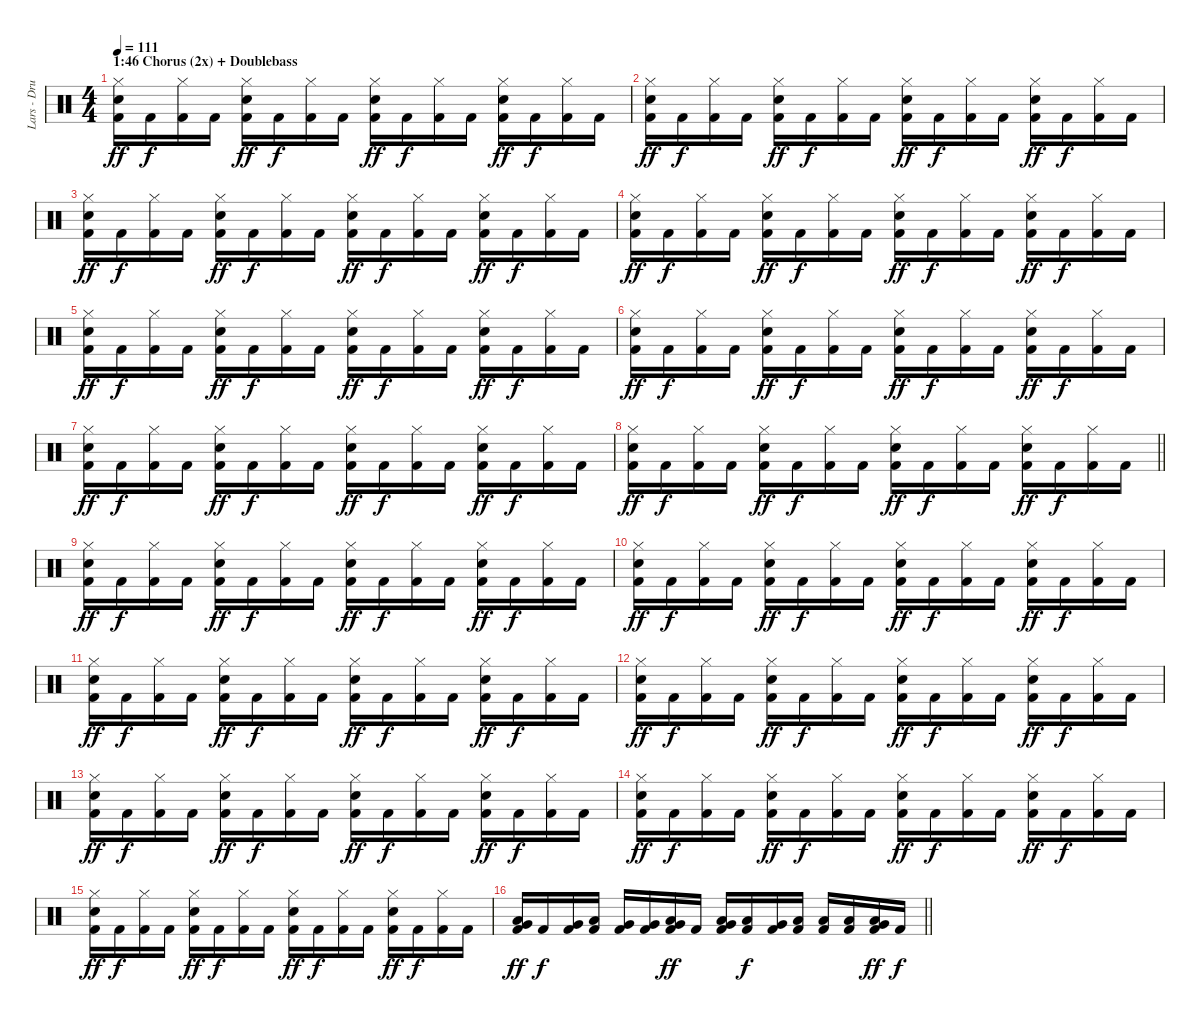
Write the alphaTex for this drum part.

\track ("Lars - Drums + tempi marker" "Lars - Dru") {instrument percussion}
\staff {score}
\articulation defaults
\ts (4 4)
\section ("" "1:46 Chorus (2x) + Doublebass")
\tempo 111
\clef neutral
\ks c
("Electric Snare (hit)" "Hi-Hat (closed)" "Kick (hit) 2").16{dy ff} "Kick (hit) 2".16{dy f} ("Hi-Hat (closed)" "Kick (hit) 2").16 "Kick (hit) 2".16 ("Electric Snare (hit)" "Hi-Hat (closed)" "Kick (hit) 2").16{dy ff} "Kick (hit) 2".16{dy f} ("Hi-Hat (closed)" "Kick (hit) 2").16 "Kick (hit) 2".16 ("Electric Snare (hit)" "Hi-Hat (closed)" "Kick (hit) 2").16{dy ff} "Kick (hit) 2".16{dy f} ("Hi-Hat (closed)" "Kick (hit) 2").16 "Kick (hit) 2".16 ("Electric Snare (hit)" "Hi-Hat (closed)" "Kick (hit) 2").16{dy ff} "Kick (hit) 2".16{dy f} ("Hi-Hat (closed)" "Kick (hit) 2").16 "Kick (hit) 2".16 |
("Electric Snare (hit)" "Hi-Hat (closed)" "Kick (hit) 2").16{dy ff} "Kick (hit) 2".16{dy f} ("Hi-Hat (closed)" "Kick (hit) 2").16 "Kick (hit) 2".16 ("Electric Snare (hit)" "Hi-Hat (closed)" "Kick (hit) 2").16{dy ff} "Kick (hit) 2".16{dy f} ("Hi-Hat (closed)" "Kick (hit) 2").16 "Kick (hit) 2".16 ("Electric Snare (hit)" "Hi-Hat (closed)" "Kick (hit) 2").16{dy ff} "Kick (hit) 2".16{dy f} ("Hi-Hat (closed)" "Kick (hit) 2").16 "Kick (hit) 2".16 ("Electric Snare (hit)" "Hi-Hat (closed)" "Kick (hit) 2").16{dy ff} "Kick (hit) 2".16{dy f} ("Hi-Hat (closed)" "Kick (hit) 2").16 "Kick (hit) 2".16 |
("Electric Snare (hit)" "Hi-Hat (closed)" "Kick (hit) 2").16{dy ff} "Kick (hit) 2".16{dy f} ("Hi-Hat (closed)" "Kick (hit) 2").16 "Kick (hit) 2".16 ("Electric Snare (hit)" "Hi-Hat (closed)" "Kick (hit) 2").16{dy ff} "Kick (hit) 2".16{dy f} ("Hi-Hat (closed)" "Kick (hit) 2").16 "Kick (hit) 2".16 ("Electric Snare (hit)" "Hi-Hat (closed)" "Kick (hit) 2").16{dy ff} "Kick (hit) 2".16{dy f} ("Hi-Hat (closed)" "Kick (hit) 2").16 "Kick (hit) 2".16 ("Electric Snare (hit)" "Hi-Hat (closed)" "Kick (hit) 2").16{dy ff} "Kick (hit) 2".16{dy f} ("Hi-Hat (closed)" "Kick (hit) 2").16 "Kick (hit) 2".16 |
("Electric Snare (hit)" "Hi-Hat (closed)" "Kick (hit) 2").16{dy ff} "Kick (hit) 2".16{dy f} ("Hi-Hat (closed)" "Kick (hit) 2").16 "Kick (hit) 2".16 ("Electric Snare (hit)" "Hi-Hat (closed)" "Kick (hit) 2").16{dy ff} "Kick (hit) 2".16{dy f} ("Hi-Hat (closed)" "Kick (hit) 2").16 "Kick (hit) 2".16 ("Electric Snare (hit)" "Hi-Hat (closed)" "Kick (hit) 2").16{dy ff} "Kick (hit) 2".16{dy f} ("Hi-Hat (closed)" "Kick (hit) 2").16 "Kick (hit) 2".16 ("Electric Snare (hit)" "Hi-Hat (closed)" "Kick (hit) 2").16{dy ff} "Kick (hit) 2".16{dy f} ("Hi-Hat (closed)" "Kick (hit) 2").16 "Kick (hit) 2".16 |
("Electric Snare (hit)" "Hi-Hat (closed)" "Kick (hit) 2").16{dy ff} "Kick (hit) 2".16{dy f} ("Hi-Hat (closed)" "Kick (hit) 2").16 "Kick (hit) 2".16 ("Electric Snare (hit)" "Hi-Hat (closed)" "Kick (hit) 2").16{dy ff} "Kick (hit) 2".16{dy f} ("Hi-Hat (closed)" "Kick (hit) 2").16 "Kick (hit) 2".16 ("Electric Snare (hit)" "Hi-Hat (closed)" "Kick (hit) 2").16{dy ff} "Kick (hit) 2".16{dy f} ("Hi-Hat (closed)" "Kick (hit) 2").16 "Kick (hit) 2".16 ("Electric Snare (hit)" "Hi-Hat (closed)" "Kick (hit) 2").16{dy ff} "Kick (hit) 2".16{dy f} ("Hi-Hat (closed)" "Kick (hit) 2").16 "Kick (hit) 2".16 |
("Electric Snare (hit)" "Hi-Hat (closed)" "Kick (hit) 2").16{dy ff} "Kick (hit) 2".16{dy f} ("Hi-Hat (closed)" "Kick (hit) 2").16 "Kick (hit) 2".16 ("Electric Snare (hit)" "Hi-Hat (closed)" "Kick (hit) 2").16{dy ff} "Kick (hit) 2".16{dy f} ("Hi-Hat (closed)" "Kick (hit) 2").16 "Kick (hit) 2".16 ("Electric Snare (hit)" "Hi-Hat (closed)" "Kick (hit) 2").16{dy ff} "Kick (hit) 2".16{dy f} ("Hi-Hat (closed)" "Kick (hit) 2").16 "Kick (hit) 2".16 ("Electric Snare (hit)" "Hi-Hat (closed)" "Kick (hit) 2").16{dy ff} "Kick (hit) 2".16{dy f} ("Hi-Hat (closed)" "Kick (hit) 2").16 "Kick (hit) 2".16 |
("Electric Snare (hit)" "Hi-Hat (closed)" "Kick (hit) 2").16{dy ff} "Kick (hit) 2".16{dy f} ("Hi-Hat (closed)" "Kick (hit) 2").16 "Kick (hit) 2".16 ("Electric Snare (hit)" "Hi-Hat (closed)" "Kick (hit) 2").16{dy ff} "Kick (hit) 2".16{dy f} ("Hi-Hat (closed)" "Kick (hit) 2").16 "Kick (hit) 2".16 ("Electric Snare (hit)" "Hi-Hat (closed)" "Kick (hit) 2").16{dy ff} "Kick (hit) 2".16{dy f} ("Hi-Hat (closed)" "Kick (hit) 2").16 "Kick (hit) 2".16 ("Electric Snare (hit)" "Hi-Hat (closed)" "Kick (hit) 2").16{dy ff} "Kick (hit) 2".16{dy f} ("Hi-Hat (closed)" "Kick (hit) 2").16 "Kick (hit) 2".16 |
\barLineRight lightlight
("Electric Snare (hit)" "Hi-Hat (closed)" "Kick (hit) 2").16{dy ff} "Kick (hit) 2".16{dy f} ("Hi-Hat (closed)" "Kick (hit) 2").16 "Kick (hit) 2".16 ("Electric Snare (hit)" "Hi-Hat (closed)" "Kick (hit) 2").16{dy ff} "Kick (hit) 2".16{dy f} ("Hi-Hat (closed)" "Kick (hit) 2").16 "Kick (hit) 2".16 ("Electric Snare (hit)" "Hi-Hat (closed)" "Kick (hit) 2").16{dy ff} "Kick (hit) 2".16{dy f} ("Hi-Hat (closed)" "Kick (hit) 2").16 "Kick (hit) 2".16 ("Electric Snare (hit)" "Hi-Hat (closed)" "Kick (hit) 2").16{dy ff} "Kick (hit) 2".16{dy f} ("Hi-Hat (closed)" "Kick (hit) 2").16 "Kick (hit) 2".16 |
("Electric Snare (hit)" "Hi-Hat (closed)" "Kick (hit) 2").16{dy ff} "Kick (hit) 2".16{dy f} ("Hi-Hat (closed)" "Kick (hit) 2").16 "Kick (hit) 2".16 ("Electric Snare (hit)" "Hi-Hat (closed)" "Kick (hit) 2").16{dy ff} "Kick (hit) 2".16{dy f} ("Hi-Hat (closed)" "Kick (hit) 2").16 "Kick (hit) 2".16 ("Electric Snare (hit)" "Hi-Hat (closed)" "Kick (hit) 2").16{dy ff} "Kick (hit) 2".16{dy f} ("Hi-Hat (closed)" "Kick (hit) 2").16 "Kick (hit) 2".16 ("Electric Snare (hit)" "Hi-Hat (closed)" "Kick (hit) 2").16{dy ff} "Kick (hit) 2".16{dy f} ("Hi-Hat (closed)" "Kick (hit) 2").16 "Kick (hit) 2".16 |
("Electric Snare (hit)" "Hi-Hat (closed)" "Kick (hit) 2").16{dy ff} "Kick (hit) 2".16{dy f} ("Hi-Hat (closed)" "Kick (hit) 2").16 "Kick (hit) 2".16 ("Electric Snare (hit)" "Hi-Hat (closed)" "Kick (hit) 2").16{dy ff} "Kick (hit) 2".16{dy f} ("Hi-Hat (closed)" "Kick (hit) 2").16 "Kick (hit) 2".16 ("Electric Snare (hit)" "Hi-Hat (closed)" "Kick (hit) 2").16{dy ff} "Kick (hit) 2".16{dy f} ("Hi-Hat (closed)" "Kick (hit) 2").16 "Kick (hit) 2".16 ("Electric Snare (hit)" "Hi-Hat (closed)" "Kick (hit) 2").16{dy ff} "Kick (hit) 2".16{dy f} ("Hi-Hat (closed)" "Kick (hit) 2").16 "Kick (hit) 2".16 |
("Electric Snare (hit)" "Hi-Hat (closed)" "Kick (hit) 2").16{dy ff} "Kick (hit) 2".16{dy f} ("Hi-Hat (closed)" "Kick (hit) 2").16 "Kick (hit) 2".16 ("Electric Snare (hit)" "Hi-Hat (closed)" "Kick (hit) 2").16{dy ff} "Kick (hit) 2".16{dy f} ("Hi-Hat (closed)" "Kick (hit) 2").16 "Kick (hit) 2".16 ("Electric Snare (hit)" "Hi-Hat (closed)" "Kick (hit) 2").16{dy ff} "Kick (hit) 2".16{dy f} ("Hi-Hat (closed)" "Kick (hit) 2").16 "Kick (hit) 2".16 ("Electric Snare (hit)" "Hi-Hat (closed)" "Kick (hit) 2").16{dy ff} "Kick (hit) 2".16{dy f} ("Hi-Hat (closed)" "Kick (hit) 2").16 "Kick (hit) 2".16 |
("Electric Snare (hit)" "Hi-Hat (closed)" "Kick (hit) 2").16{dy ff} "Kick (hit) 2".16{dy f} ("Hi-Hat (closed)" "Kick (hit) 2").16 "Kick (hit) 2".16 ("Electric Snare (hit)" "Hi-Hat (closed)" "Kick (hit) 2").16{dy ff} "Kick (hit) 2".16{dy f} ("Hi-Hat (closed)" "Kick (hit) 2").16 "Kick (hit) 2".16 ("Electric Snare (hit)" "Hi-Hat (closed)" "Kick (hit) 2").16{dy ff} "Kick (hit) 2".16{dy f} ("Hi-Hat (closed)" "Kick (hit) 2").16 "Kick (hit) 2".16 ("Electric Snare (hit)" "Hi-Hat (closed)" "Kick (hit) 2").16{dy ff} "Kick (hit) 2".16{dy f} ("Hi-Hat (closed)" "Kick (hit) 2").16 "Kick (hit) 2".16 |
("Electric Snare (hit)" "Hi-Hat (closed)" "Kick (hit) 2").16{dy ff} "Kick (hit) 2".16{dy f} ("Hi-Hat (closed)" "Kick (hit) 2").16 "Kick (hit) 2".16 ("Electric Snare (hit)" "Hi-Hat (closed)" "Kick (hit) 2").16{dy ff} "Kick (hit) 2".16{dy f} ("Hi-Hat (closed)" "Kick (hit) 2").16 "Kick (hit) 2".16 ("Electric Snare (hit)" "Hi-Hat (closed)" "Kick (hit) 2").16{dy ff} "Kick (hit) 2".16{dy f} ("Hi-Hat (closed)" "Kick (hit) 2").16 "Kick (hit) 2".16 ("Electric Snare (hit)" "Hi-Hat (closed)" "Kick (hit) 2").16{dy ff} "Kick (hit) 2".16{dy f} ("Hi-Hat (closed)" "Kick (hit) 2").16 "Kick (hit) 2".16 |
("Electric Snare (hit)" "Hi-Hat (closed)" "Kick (hit) 2").16{dy ff} "Kick (hit) 2".16{dy f} ("Hi-Hat (closed)" "Kick (hit) 2").16 "Kick (hit) 2".16 ("Electric Snare (hit)" "Hi-Hat (closed)" "Kick (hit) 2").16{dy ff} "Kick (hit) 2".16{dy f} ("Hi-Hat (closed)" "Kick (hit) 2").16 "Kick (hit) 2".16 ("Electric Snare (hit)" "Hi-Hat (closed)" "Kick (hit) 2").16{dy ff} "Kick (hit) 2".16{dy f} ("Hi-Hat (closed)" "Kick (hit) 2").16 "Kick (hit) 2".16 ("Electric Snare (hit)" "Hi-Hat (closed)" "Kick (hit) 2").16{dy ff} "Kick (hit) 2".16{dy f} ("Hi-Hat (closed)" "Kick (hit) 2").16 "Kick (hit) 2".16 |
("Electric Snare (hit)" "Hi-Hat (closed)" "Kick (hit) 2").16{dy ff} "Kick (hit) 2".16{dy f} ("Hi-Hat (closed)" "Kick (hit) 2").16 "Kick (hit) 2".16 ("Electric Snare (hit)" "Hi-Hat (closed)" "Kick (hit) 2").16{dy ff} "Kick (hit) 2".16{dy f} ("Hi-Hat (closed)" "Kick (hit) 2").16 "Kick (hit) 2".16 ("Electric Snare (hit)" "Hi-Hat (closed)" "Kick (hit) 2").16{dy ff} "Kick (hit) 2".16{dy f} ("Hi-Hat (closed)" "Kick (hit) 2").16 "Kick (hit) 2".16 ("Electric Snare (hit)" "Hi-Hat (closed)" "Kick (hit) 2").16{dy ff} "Kick (hit) 2".16{dy f} ("Hi-Hat (closed)" "Kick (hit) 2").16 "Kick (hit) 2".16 |
\barLineRight lightlight
("Low Tom (hit)" "Very Low Tom (hit)" "Kick (hit) 2").16{dy ff} "Kick (hit) 2".16{dy f} ("Very Low Tom (hit)" "Kick (hit) 2").16 ("Low Tom (hit)" "Kick (hit) 2").16 ("Very Low Tom (hit)" "Kick (hit) 2").16 ("Very Low Tom (hit)" "Kick (hit) 2").16 ("Very Low Tom (hit)" "Low Floor Tom (hit)" "Kick (hit) 2").16{dy ff} "Kick (hit) 2".16 ("Very Low Tom (hit)" "Low Tom (hit)" "Kick (hit) 2").16 ("Low Tom (hit)" "Kick (hit) 2").16{dy f} ("Very Low Tom (hit)" "Kick (hit) 2").16 ("Low Tom (hit)" "Kick (hit) 2").16 ("Low Tom (hit)" "Kick (hit) 2").16 ("Low Tom (hit)" "Kick (hit) 2").16 ("Low Tom (hit)" "Very Low Tom (hit)" "Kick (hit) 2").16{dy ff} "Kick (hit) 2".16{dy f}
